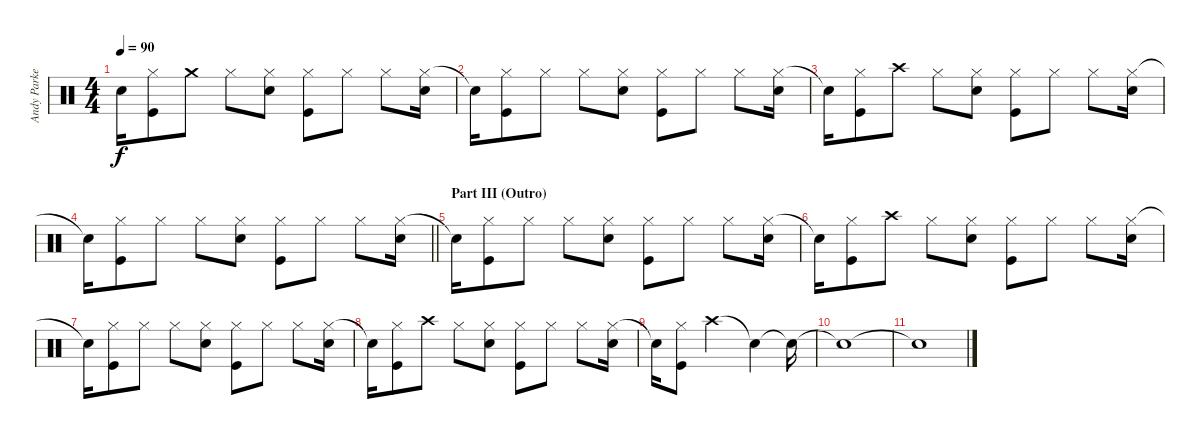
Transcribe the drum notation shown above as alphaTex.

\track ("Andy Parker" "Andy Parke") {instrument percussion}
\staff {score}
\articulation defaults
\ts (4 4)
\tempo 90
\clef neutral
\ks c "Snare (hit)"{t}.16{dy f}
("Hi-Hat (closed)" "Kick (hit)").8 "Crash medium (hit)".8 "Hi-Hat (closed)".8 ("Hi-Hat (closed)" "Snare (hit) 2").8 ("Hi-Hat (closed)" "Kick (hit)").8 "Hi-Hat (closed)".8 "Hi-Hat (closed)".8 ("Hi-Hat (closed)" "Snare (hit) 2").16 |
"Snare (hit)"{t}.16 ("Hi-Hat (closed)" "Kick (hit)").8 "Hi-Hat (closed)".8 "Hi-Hat (closed)".8 ("Hi-Hat (closed)" "Snare (hit) 2").8 ("Hi-Hat (closed)" "Kick (hit)").8 "Hi-Hat (closed)".8 "Hi-Hat (closed)".8 ("Hi-Hat (closed)" "Snare (hit) 2").16 |
"Snare (hit)"{t}.16 ("Hi-Hat (closed)" "Kick (hit)").8 "Crash high (hit)".8 "Hi-Hat (closed)".8 ("Hi-Hat (closed)" "Snare (hit) 2").8 ("Hi-Hat (closed)" "Kick (hit)").8 "Hi-Hat (closed)".8 "Hi-Hat (closed)".8 ("Hi-Hat (closed)" "Snare (hit) 2").16 |
\barLineRight lightlight "Snare (hit)"{t}.16
("Hi-Hat (closed)" "Kick (hit)").8 "Hi-Hat (closed)".8 "Hi-Hat (closed)".8 ("Hi-Hat (closed)" "Snare (hit) 2").8 ("Hi-Hat (closed)" "Kick (hit)").8 "Hi-Hat (closed)".8 "Hi-Hat (closed)".8 ("Hi-Hat (closed)" "Snare (hit) 2").16 |
\section ("" "Part III (Outro)")
"Snare (hit)"{t}.16 ("Hi-Hat (closed)" "Kick (hit)").8 "Hi-Hat (closed)".8 "Hi-Hat (closed)".8 ("Hi-Hat (closed)" "Snare (hit) 2").8 ("Hi-Hat (closed)" "Kick (hit)").8 "Hi-Hat (closed)".8 "Hi-Hat (closed)".8 ("Hi-Hat (closed)" "Snare (hit) 2").16 |
"Snare (hit)"{t}.16 ("Hi-Hat (closed)" "Kick (hit)").8 "Crash high (hit)".8 "Hi-Hat (closed)".8 ("Hi-Hat (closed)" "Snare (hit) 2").8 ("Hi-Hat (closed)" "Kick (hit)").8 "Hi-Hat (closed)".8 "Hi-Hat (closed)".8 ("Hi-Hat (closed)" "Snare (hit) 2").16 |
"Snare (hit)"{t}.16 ("Hi-Hat (closed)" "Kick (hit)").8 "Hi-Hat (closed)".8 "Hi-Hat (closed)".8 ("Hi-Hat (closed)" "Snare (hit) 2").8 ("Hi-Hat (closed)" "Kick (hit)").8 "Hi-Hat (closed)".8 "Hi-Hat (closed)".8 ("Hi-Hat (closed)" "Snare (hit) 2").16 |
"Snare (hit)"{t}.16 ("Hi-Hat (closed)" "Kick (hit)").8 "Crash high (hit)".8 "Hi-Hat (closed)".8 ("Hi-Hat (closed)" "Snare (hit) 2").8 ("Hi-Hat (closed)" "Kick (hit)").8 "Hi-Hat (closed)".8 "Hi-Hat (closed)".8 ("Hi-Hat (closed)" "Snare (hit) 2").16 |
"Snare (hit)"{t}.16 ("Hi-Hat (closed)" "Kick (hit)").8 "Crash high (hit)".2 "Snare (hit)"{t}.4 "Snare (hit)"{t}.16 |
"Snare (hit)"{t}.1 |
"Snare (hit)"{t}.1
